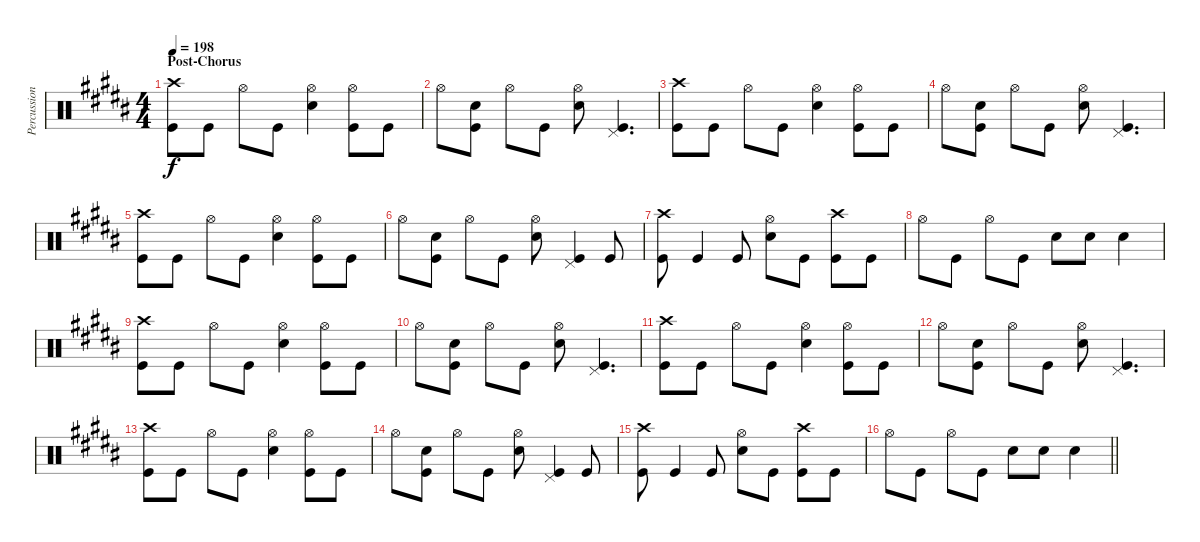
\track ("Percussion" "Percussion") {instrument percussion}
\staff {score}
\articulation defaults
\ts (4 4)
\section ("" "Post-Chorus")
\tempo 198
\clef neutral
\ks b
("Crash high (hit)" "Kick (hit)").8{dy f} "Kick (hit)".8 "Hi-Hat (open)".8 "Kick (hit)".8 ("Hi-Hat (open)" "Electric Snare (hit)").4 ("Hi-Hat (open)" "Kick (hit)").8 "Kick (hit)".8 |
"Hi-Hat (open)".8 ("Electric Snare (hit)" "Kick (hit)").8 "Hi-Hat (open)".8 "Kick (hit)".8 ("Hi-Hat (open)" "Electric Snare (hit)").8 ("Pedal Hi-Hat (hit)" "Kick (hit)").4{d} |
("Crash high (hit)" "Kick (hit)").8 "Kick (hit)".8 "Hi-Hat (open)".8 "Kick (hit)".8 ("Hi-Hat (open)" "Electric Snare (hit)").4 ("Hi-Hat (open)" "Kick (hit)").8 "Kick (hit)".8 |
"Hi-Hat (open)".8 ("Electric Snare (hit)" "Kick (hit)").8 "Hi-Hat (open)".8 "Kick (hit)".8 ("Hi-Hat (open)" "Electric Snare (hit)").8 ("Pedal Hi-Hat (hit)" "Kick (hit)").4{d} |
("Crash high (hit)" "Kick (hit)").8 "Kick (hit)".8 "Hi-Hat (open)".8 "Kick (hit)".8 ("Hi-Hat (open)" "Electric Snare (hit)").4 ("Hi-Hat (open)" "Kick (hit)").8 "Kick (hit)".8 |
"Hi-Hat (open)".8 ("Electric Snare (hit)" "Kick (hit)").8 "Hi-Hat (open)".8 "Kick (hit)".8 ("Hi-Hat (open)" "Electric Snare (hit)").8 ("Pedal Hi-Hat (hit)" "Kick (hit)").4 "Kick (hit)".8 |
("Crash high (hit)" "Kick (hit)").8 "Kick (hit)".4 "Kick (hit)".8 ("Hi-Hat (open)" "Electric Snare (hit)").8 "Kick (hit)".8 ("Crash high (hit)" "Kick (hit)").8 "Kick (hit)".8 |
"Hi-Hat (open)".8 "Kick (hit)".8 "Hi-Hat (open)".8 "Kick (hit)".8 "Electric Snare (hit)".8 "Electric Snare (hit)".8 "Electric Snare (hit)".4 |
("Crash high (hit)" "Kick (hit)").8 "Kick (hit)".8 "Hi-Hat (open)".8 "Kick (hit)".8 ("Hi-Hat (open)" "Electric Snare (hit)").4 ("Hi-Hat (open)" "Kick (hit)").8 "Kick (hit)".8 |
"Hi-Hat (open)".8 ("Electric Snare (hit)" "Kick (hit)").8 "Hi-Hat (open)".8 "Kick (hit)".8 ("Hi-Hat (open)" "Electric Snare (hit)").8 ("Pedal Hi-Hat (hit)" "Kick (hit)").4{d} |
("Crash high (hit)" "Kick (hit)").8 "Kick (hit)".8 "Hi-Hat (open)".8 "Kick (hit)".8 ("Hi-Hat (open)" "Electric Snare (hit)").4 ("Hi-Hat (open)" "Kick (hit)").8 "Kick (hit)".8 |
"Hi-Hat (open)".8 ("Electric Snare (hit)" "Kick (hit)").8 "Hi-Hat (open)".8 "Kick (hit)".8 ("Hi-Hat (open)" "Electric Snare (hit)").8 ("Pedal Hi-Hat (hit)" "Kick (hit)").4{d} |
("Crash high (hit)" "Kick (hit)").8 "Kick (hit)".8 "Hi-Hat (open)".8 "Kick (hit)".8 ("Hi-Hat (open)" "Electric Snare (hit)").4 ("Hi-Hat (open)" "Kick (hit)").8 "Kick (hit)".8 |
"Hi-Hat (open)".8 ("Electric Snare (hit)" "Kick (hit)").8 "Hi-Hat (open)".8 "Kick (hit)".8 ("Hi-Hat (open)" "Electric Snare (hit)").8 ("Pedal Hi-Hat (hit)" "Kick (hit)").4 "Kick (hit)".8 |
("Crash high (hit)" "Kick (hit)").8 "Kick (hit)".4 "Kick (hit)".8 ("Hi-Hat (open)" "Electric Snare (hit)").8 "Kick (hit)".8 ("Crash high (hit)" "Kick (hit)").8 "Kick (hit)".8 |
\barLineRight lightlight "Hi-Hat (open)".8 "Kick (hit)".8 "Hi-Hat (open)".8 "Kick (hit)".8 "Electric Snare (hit)".8 "Electric Snare (hit)".8 "Electric Snare (hit)".4
